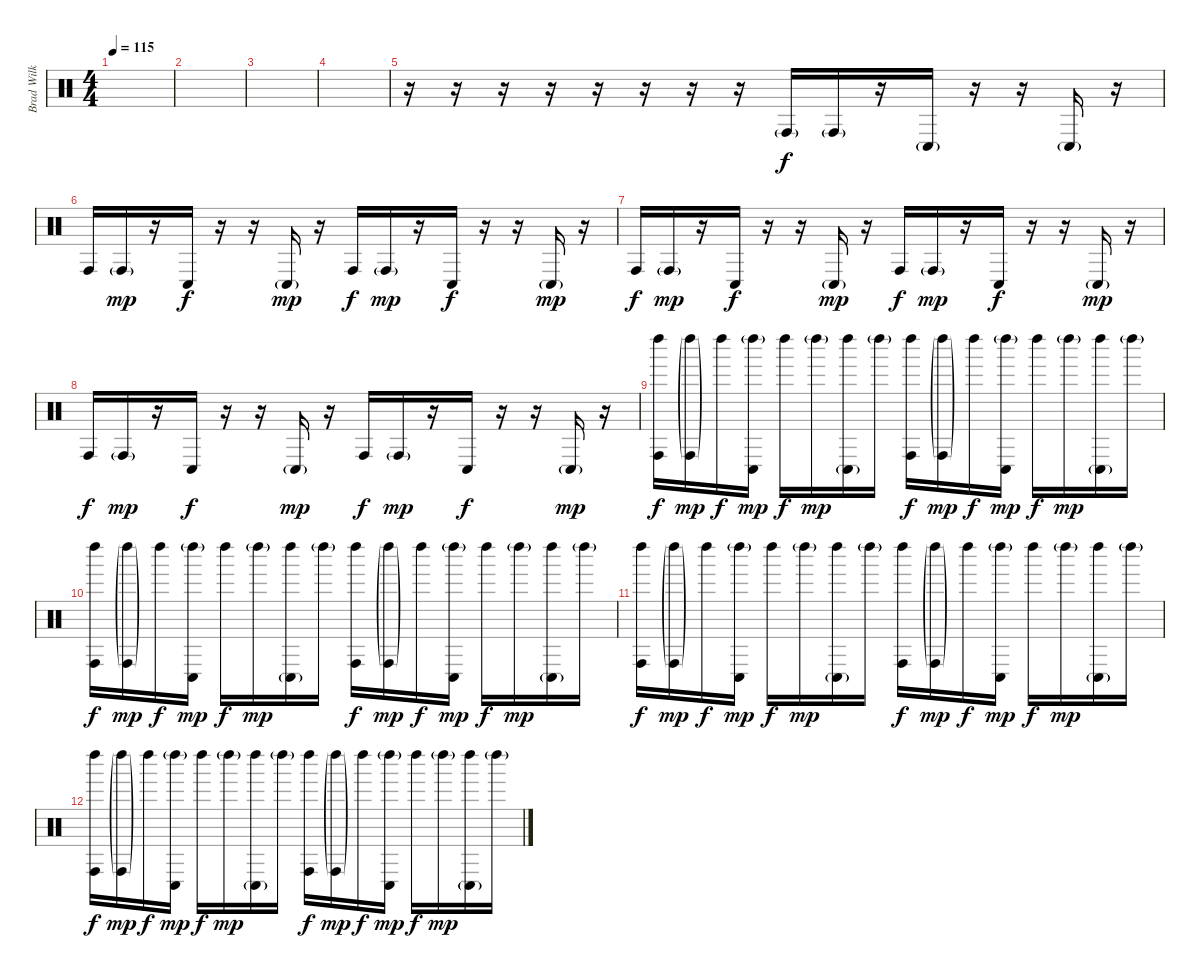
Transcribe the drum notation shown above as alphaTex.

\track ("Brad Wilk - Conga" "Brad Wilk ") {instrument percussion}
\staff {score}
\articulation defaults
\ts (4 4)
\tempo 115
\clef neutral
\ks c
|
|
|
|
r.16 r.16 r.16 r.16 r.16 r.16 r.16 r.16 "Conga high (hit)"{g}.16 "Conga high (hit)"{g}.16 r.16 "Conga low (hit)"{g}.16 r.16 r.16 "Conga low (hit)"{g}.16 r.16 |
"Conga high (hit)".16{dy f} "Conga high (hit)"{g}.16{dy mp} r.16 "Conga low (hit)".16{dy f} r.16 r.16 "Conga low (hit)"{g}.16{dy mp} r.16 "Conga high (hit)".16{dy f} "Conga high (hit)"{g}.16{dy mp} r.16 "Conga low (hit)".16{dy f} r.16 r.16 "Conga low (hit)"{g}.16{dy mp} r.16 |
"Conga high (hit)".16{dy f} "Conga high (hit)"{g}.16{dy mp} r.16 "Conga low (hit)".16{dy f} r.16 r.16 "Conga low (hit)"{g}.16{dy mp} r.16 "Conga high (hit)".16{dy f} "Conga high (hit)"{g}.16{dy mp} r.16 "Conga low (hit)".16{dy f} r.16 r.16 "Conga low (hit)"{g}.16{dy mp} r.16 |
"Conga high (hit)".16{dy f} "Conga high (hit)"{g}.16{dy mp} r.16 "Conga low (hit)".16{dy f} r.16 r.16 "Conga low (hit)"{g}.16{dy mp} r.16 "Conga high (hit)".16{dy f} "Conga high (hit)"{g}.16{dy mp} r.16 "Conga low (hit)".16{dy f} r.16 r.16 "Conga low (hit)"{g}.16{dy mp} r.16 |
("Conga high (hit)" "Left Maraca (hit)").16{dy f} ("Conga high (hit)"{g} "Left Maraca (hit)"{g}).16{dy mp} "Left Maraca (hit)".16{dy f} ("Conga low (hit)" "Left Maraca (hit)"{g}).16{dy mp} "Left Maraca (hit)".16{dy f} "Left Maraca (hit)"{g}.16{dy mp} ("Conga low (hit)"{g} "Left Maraca (hit)").16 "Left Maraca (hit)"{g}.16 ("Conga high (hit)" "Left Maraca (hit)").16{dy f} ("Conga high (hit)"{g} "Left Maraca (hit)"{g}).16{dy mp} "Left Maraca (hit)".16{dy f} ("Conga low (hit)" "Left Maraca (hit)"{g}).16{dy mp} "Left Maraca (hit)".16{dy f} "Left Maraca (hit)"{g}.16{dy mp} ("Conga low (hit)"{g} "Left Maraca (hit)").16 "Left Maraca (hit)"{g}.16 |
("Conga high (hit)" "Left Maraca (hit)").16{dy f} ("Conga high (hit)"{g} "Left Maraca (hit)"{g}).16{dy mp} "Left Maraca (hit)".16{dy f} ("Conga low (hit)" "Left Maraca (hit)"{g}).16{dy mp} "Left Maraca (hit)".16{dy f} "Left Maraca (hit)"{g}.16{dy mp} ("Conga low (hit)"{g} "Left Maraca (hit)").16 "Left Maraca (hit)"{g}.16 ("Conga high (hit)" "Left Maraca (hit)").16{dy f} ("Conga high (hit)"{g} "Left Maraca (hit)"{g}).16{dy mp} "Left Maraca (hit)".16{dy f} ("Conga low (hit)" "Left Maraca (hit)"{g}).16{dy mp} "Left Maraca (hit)".16{dy f} "Left Maraca (hit)"{g}.16{dy mp} ("Conga low (hit)"{g} "Left Maraca (hit)").16 "Left Maraca (hit)"{g}.16 |
("Conga high (hit)" "Left Maraca (hit)").16{dy f} ("Conga high (hit)"{g} "Left Maraca (hit)"{g}).16{dy mp} "Left Maraca (hit)".16{dy f} ("Conga low (hit)" "Left Maraca (hit)"{g}).16{dy mp} "Left Maraca (hit)".16{dy f} "Left Maraca (hit)"{g}.16{dy mp} ("Conga low (hit)"{g} "Left Maraca (hit)").16 "Left Maraca (hit)"{g}.16 ("Conga high (hit)" "Left Maraca (hit)").16{dy f} ("Conga high (hit)"{g} "Left Maraca (hit)"{g}).16{dy mp} "Left Maraca (hit)".16{dy f} ("Conga low (hit)" "Left Maraca (hit)"{g}).16{dy mp} "Left Maraca (hit)".16{dy f} "Left Maraca (hit)"{g}.16{dy mp} ("Conga low (hit)"{g} "Left Maraca (hit)").16 "Left Maraca (hit)"{g}.16 |
("Conga high (hit)" "Left Maraca (hit)").16{dy f} ("Conga high (hit)"{g} "Left Maraca (hit)"{g}).16{dy mp} "Left Maraca (hit)".16{dy f} ("Conga low (hit)" "Left Maraca (hit)"{g}).16{dy mp} "Left Maraca (hit)".16{dy f} "Left Maraca (hit)"{g}.16{dy mp} ("Conga low (hit)"{g} "Left Maraca (hit)").16 "Left Maraca (hit)"{g}.16 ("Conga high (hit)" "Left Maraca (hit)").16{dy f} ("Conga high (hit)"{g} "Left Maraca (hit)"{g}).16{dy mp} "Left Maraca (hit)".16{dy f} ("Conga low (hit)" "Left Maraca (hit)"{g}).16{dy mp} "Left Maraca (hit)".16{dy f} "Left Maraca (hit)"{g}.16{dy mp} ("Conga low (hit)"{g} "Left Maraca (hit)").16 "Left Maraca (hit)"{g}.16
